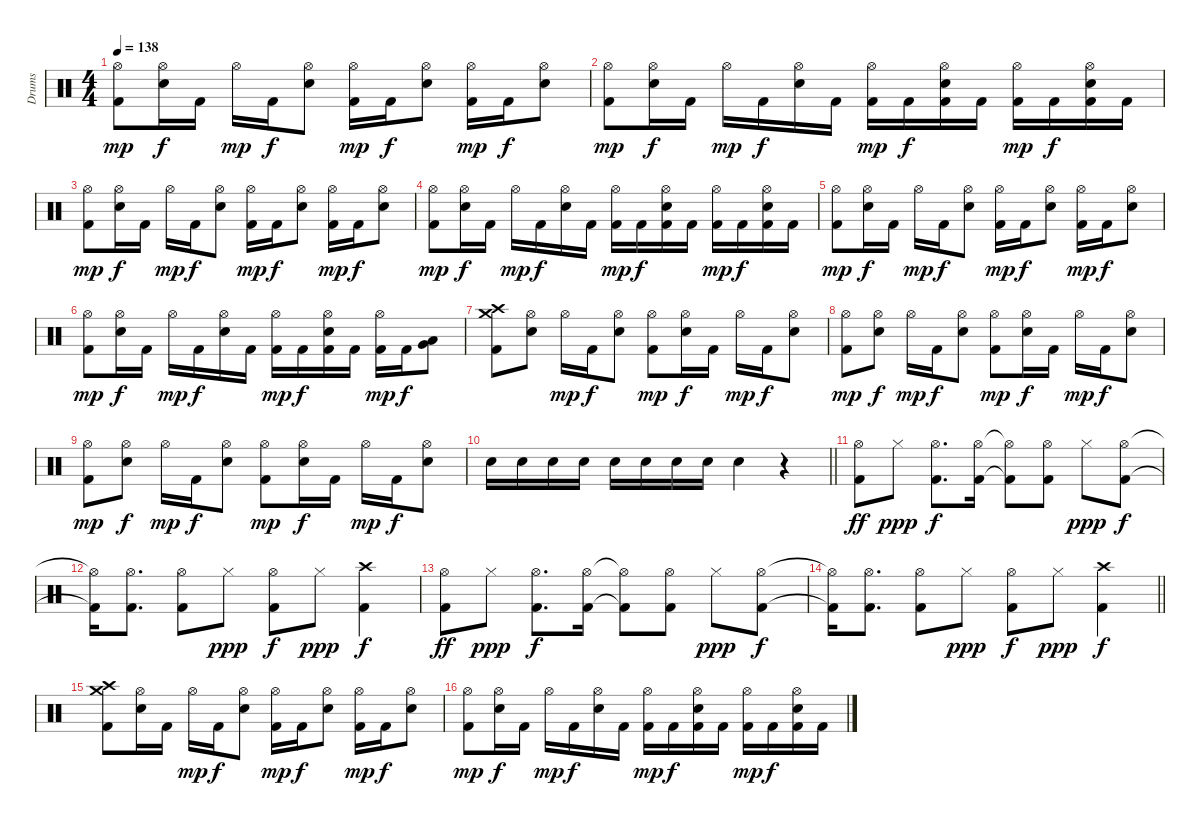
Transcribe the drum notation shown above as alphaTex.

\track ("Drums" "Drums") {instrument percussion}
\staff {score}
\articulation defaults
\ts (4 4)
\tempo 138
\clef neutral
\ks c
("Hi-Hat (open)" "Kick (hit) 2").8{dy mp} ("Hi-Hat (open)" "Electric Snare (hit)").16{dy f} "Kick (hit) 2".16 "Hi-Hat (open)".16{dy mp} "Kick (hit) 2".16{dy f} ("Hi-Hat (open)" "Electric Snare (hit)").8 ("Hi-Hat (open)" "Kick (hit) 2").16{dy mp} "Kick (hit) 2".16{dy f} ("Hi-Hat (open)" "Electric Snare (hit)").8 ("Hi-Hat (open)" "Kick (hit) 2").16{dy mp} "Kick (hit) 2".16{dy f} ("Hi-Hat (open)" "Electric Snare (hit)").8 |
("Hi-Hat (open)" "Kick (hit) 2").8{dy mp} ("Hi-Hat (open)" "Electric Snare (hit)").16{dy f} "Kick (hit) 2".16 "Hi-Hat (open)".16{dy mp} "Kick (hit) 2".16{dy f} ("Hi-Hat (open)" "Electric Snare (hit)").16 "Kick (hit) 2".16 ("Hi-Hat (open)" "Kick (hit) 2").16{dy mp} "Kick (hit) 2".16{dy f} ("Hi-Hat (open)" "Electric Snare (hit)" "Kick (hit) 2").16 "Kick (hit) 2".16 ("Hi-Hat (open)" "Kick (hit) 2").16{dy mp} "Kick (hit) 2".16{dy f} ("Hi-Hat (open)" "Electric Snare (hit)" "Kick (hit) 2").16 "Kick (hit) 2".16 |
("Hi-Hat (open)" "Kick (hit) 2").8{dy mp} ("Hi-Hat (open)" "Electric Snare (hit)").16{dy f} "Kick (hit) 2".16 "Hi-Hat (open)".16{dy mp} "Kick (hit) 2".16{dy f} ("Hi-Hat (open)" "Electric Snare (hit)").8 ("Hi-Hat (open)" "Kick (hit) 2").16{dy mp} "Kick (hit) 2".16{dy f} ("Hi-Hat (open)" "Electric Snare (hit)").8 ("Hi-Hat (open)" "Kick (hit) 2").16{dy mp} "Kick (hit) 2".16{dy f} ("Hi-Hat (open)" "Electric Snare (hit)").8 |
("Hi-Hat (open)" "Kick (hit) 2").8{dy mp} ("Hi-Hat (open)" "Electric Snare (hit)").16{dy f} "Kick (hit) 2".16 "Hi-Hat (open)".16{dy mp} "Kick (hit) 2".16{dy f} ("Hi-Hat (open)" "Electric Snare (hit)").16 "Kick (hit) 2".16 ("Hi-Hat (open)" "Kick (hit) 2").16{dy mp} "Kick (hit) 2".16{dy f} ("Hi-Hat (open)" "Electric Snare (hit)" "Kick (hit) 2").16 "Kick (hit) 2".16 ("Hi-Hat (open)" "Kick (hit) 2").16{dy mp} "Kick (hit) 2".16{dy f} ("Hi-Hat (open)" "Electric Snare (hit)" "Kick (hit) 2").16 "Kick (hit) 2".16 |
("Hi-Hat (open)" "Kick (hit) 2").8{dy mp} ("Hi-Hat (open)" "Electric Snare (hit)").16{dy f} "Kick (hit) 2".16 "Hi-Hat (open)".16{dy mp} "Kick (hit) 2".16{dy f} ("Hi-Hat (open)" "Electric Snare (hit)").8 ("Hi-Hat (open)" "Kick (hit) 2").16{dy mp} "Kick (hit) 2".16{dy f} ("Hi-Hat (open)" "Electric Snare (hit)").8 ("Hi-Hat (open)" "Kick (hit) 2").16{dy mp} "Kick (hit) 2".16{dy f} ("Hi-Hat (open)" "Electric Snare (hit)").8 |
("Hi-Hat (open)" "Kick (hit) 2").8{dy mp} ("Hi-Hat (open)" "Electric Snare (hit)").16{dy f} "Kick (hit) 2".16 "Hi-Hat (open)".16{dy mp} "Kick (hit) 2".16{dy f} ("Hi-Hat (open)" "Electric Snare (hit)").16 "Kick (hit) 2".16 ("Hi-Hat (open)" "Kick (hit) 2").16{dy mp} "Kick (hit) 2".16{dy f} ("Hi-Hat (open)" "Electric Snare (hit)" "Kick (hit) 2").16 "Kick (hit) 2".16 ("Hi-Hat (open)" "Kick (hit) 2").16{dy mp} "Kick (hit) 2".16{dy f} ("Low Tom (hit)" "Very Low Tom (hit)").8 |
("Crash high (hit)" "Crash medium (hit)" "Kick (hit) 2").8 ("Hi-Hat (open)" "Electric Snare (hit)").8 "Hi-Hat (open)".16{dy mp} "Kick (hit) 2".16{dy f} ("Hi-Hat (open)" "Electric Snare (hit)").8 ("Hi-Hat (open)" "Kick (hit) 2").8{dy mp} ("Hi-Hat (open)" "Electric Snare (hit)").16{dy f} "Kick (hit) 2".16 "Hi-Hat (open)".16{dy mp} "Kick (hit) 2".16{dy f} ("Hi-Hat (open)" "Electric Snare (hit)").8 |
("Hi-Hat (open)" "Kick (hit) 2").8{dy mp} ("Hi-Hat (open)" "Electric Snare (hit)").8{dy f} "Hi-Hat (open)".16{dy mp} "Kick (hit) 2".16{dy f} ("Hi-Hat (open)" "Electric Snare (hit)").8 ("Hi-Hat (open)" "Kick (hit) 2").8{dy mp} ("Hi-Hat (open)" "Electric Snare (hit)").16{dy f} "Kick (hit) 2".16 "Hi-Hat (open)".16{dy mp} "Kick (hit) 2".16{dy f} ("Hi-Hat (open)" "Electric Snare (hit)").8 |
("Hi-Hat (open)" "Kick (hit) 2").8{dy mp} ("Hi-Hat (open)" "Electric Snare (hit)").8{dy f} "Hi-Hat (open)".16{dy mp} "Kick (hit) 2".16{dy f} ("Hi-Hat (open)" "Electric Snare (hit)").8 ("Hi-Hat (open)" "Kick (hit) 2").8{dy mp} ("Hi-Hat (open)" "Electric Snare (hit)").16{dy f} "Kick (hit) 2".16 "Hi-Hat (open)".16{dy mp} "Kick (hit) 2".16{dy f} ("Hi-Hat (open)" "Electric Snare (hit)").8 |
\barLineRight lightlight "Electric Snare (hit)".16 "Electric Snare (hit)".16 "Electric Snare (hit)".16 "Electric Snare (hit)".16 "Electric Snare (hit)".16 "Electric Snare (hit)".16 "Electric Snare (hit)".16 "Electric Snare (hit)".16 "Electric Snare (hit)".4
r.4 |
("Hi-Hat (open)" "Kick (hit) 2").8{dy ff} "Hi-Hat (closed)".8{dy ppp} ("Hi-Hat (open)" "Kick (hit) 2").8{d dy f} ("Hi-Hat (open)" "Kick (hit) 2").16 ("Hi-Hat (open)"{t} "Kick (hit) 2"{t}).8 ("Hi-Hat (open)" "Kick (hit) 2").8 "Hi-Hat (closed)".8{dy ppp} ("Hi-Hat (open)" "Kick (hit) 2").8{dy f} |
("Hi-Hat (open)"{t} "Kick (hit) 2"{t}).16 ("Hi-Hat (open)" "Kick (hit) 2").8{d} ("Hi-Hat (open)" "Kick (hit) 2").8 "Hi-Hat (closed)".8{dy ppp} ("Hi-Hat (open)" "Kick (hit) 2").8{dy f} "Hi-Hat (closed)".8{dy ppp} ("Crash high (hit)" "Kick (hit) 2").4{dy f} |
("Hi-Hat (open)" "Kick (hit) 2").8{dy ff} "Hi-Hat (closed)".8{dy ppp} ("Hi-Hat (open)" "Kick (hit) 2").8{d dy f} ("Hi-Hat (open)" "Kick (hit) 2").16 ("Hi-Hat (open)"{t} "Kick (hit) 2"{t}).8 ("Hi-Hat (open)" "Kick (hit) 2").8 "Hi-Hat (closed)".8{dy ppp} ("Hi-Hat (open)" "Kick (hit) 2").8{dy f} |
\barLineRight lightlight
("Hi-Hat (open)"{t} "Kick (hit) 2"{t}).16 ("Hi-Hat (open)" "Kick (hit) 2").8{d} ("Hi-Hat (open)" "Kick (hit) 2").8 "Hi-Hat (closed)".8{dy ppp} ("Hi-Hat (open)" "Kick (hit) 2").8{dy f} "Hi-Hat (closed)".8{dy ppp} ("Crash high (hit)" "Kick (hit) 2").4{dy f} |
("Crash high (hit)" "Crash medium (hit)" "Kick (hit) 2").8 ("Hi-Hat (open)" "Electric Snare (hit)").16 "Kick (hit) 2".16 "Hi-Hat (open)".16{dy mp} "Kick (hit) 2".16{dy f} ("Hi-Hat (open)" "Electric Snare (hit)").8 ("Hi-Hat (open)" "Kick (hit) 2").16{dy mp} "Kick (hit) 2".16{dy f} ("Hi-Hat (open)" "Electric Snare (hit)").8 ("Hi-Hat (open)" "Kick (hit) 2").16{dy mp} "Kick (hit) 2".16{dy f} ("Hi-Hat (open)" "Electric Snare (hit)").8 |
("Hi-Hat (open)" "Kick (hit) 2").8{dy mp} ("Hi-Hat (open)" "Electric Snare (hit)").16{dy f} "Kick (hit) 2".16 "Hi-Hat (open)".16{dy mp} "Kick (hit) 2".16{dy f} ("Hi-Hat (open)" "Electric Snare (hit)").16 "Kick (hit) 2".16 ("Hi-Hat (open)" "Kick (hit) 2").16{dy mp} "Kick (hit) 2".16{dy f} ("Hi-Hat (open)" "Electric Snare (hit)" "Kick (hit) 2").16 "Kick (hit) 2".16 ("Hi-Hat (open)" "Kick (hit) 2").16{dy mp} "Kick (hit) 2".16{dy f} ("Hi-Hat (open)" "Electric Snare (hit)" "Kick (hit) 2").16 "Kick (hit) 2".16
